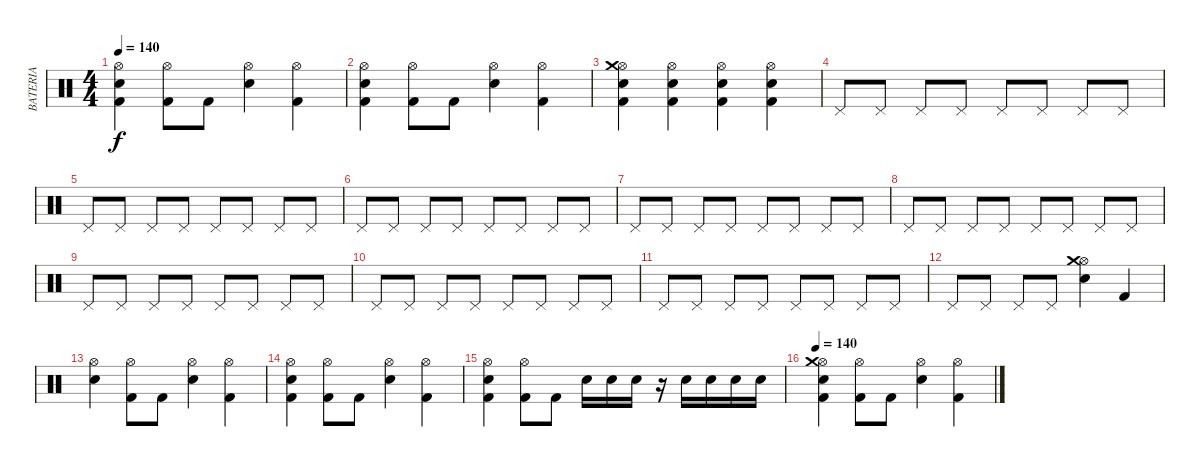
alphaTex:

\track ("BATERIA" "BATERIA") {instrument percussion}
\staff {score}
\articulation defaults
\ts (4 4)
\tempo 140
\clef neutral
\ks c
("Kick (hit) 2" "Electric Snare (hit)" "Hi-Hat (open)").4{dy f} ("Kick (hit) 2" "Hi-Hat (open)").8 "Kick (hit) 2".8 ("Electric Snare (hit)" "Hi-Hat (open)").4 ("Kick (hit) 2" "Hi-Hat (open)").4 |
("Kick (hit) 2" "Electric Snare (hit)" "Hi-Hat (open)").4 ("Kick (hit) 2" "Hi-Hat (open)").8 "Kick (hit) 2".8 ("Electric Snare (hit)" "Hi-Hat (open)").4 ("Kick (hit) 2" "Hi-Hat (open)").4 |
("Kick (hit) 2" "Electric Snare (hit)" "Hi-Hat (open)" "Crash medium (hit)").4 ("Kick (hit) 2" "Electric Snare (hit)" "Hi-Hat (open)").4 ("Kick (hit) 2" "Electric Snare (hit)" "Hi-Hat (open)").4 ("Kick (hit) 2" "Electric Snare (hit)" "Hi-Hat (open)").4 |
"Pedal Hi-Hat (hit)".8 "Pedal Hi-Hat (hit)".8 "Pedal Hi-Hat (hit)".8 "Pedal Hi-Hat (hit)".8 "Pedal Hi-Hat (hit)".8 "Pedal Hi-Hat (hit)".8 "Pedal Hi-Hat (hit)".8 "Pedal Hi-Hat (hit)".8 |
"Pedal Hi-Hat (hit)".8 "Pedal Hi-Hat (hit)".8 "Pedal Hi-Hat (hit)".8 "Pedal Hi-Hat (hit)".8 "Pedal Hi-Hat (hit)".8 "Pedal Hi-Hat (hit)".8 "Pedal Hi-Hat (hit)".8 "Pedal Hi-Hat (hit)".8 |
"Pedal Hi-Hat (hit)".8 "Pedal Hi-Hat (hit)".8 "Pedal Hi-Hat (hit)".8 "Pedal Hi-Hat (hit)".8 "Pedal Hi-Hat (hit)".8 "Pedal Hi-Hat (hit)".8 "Pedal Hi-Hat (hit)".8 "Pedal Hi-Hat (hit)".8 |
"Pedal Hi-Hat (hit)".8 "Pedal Hi-Hat (hit)".8 "Pedal Hi-Hat (hit)".8 "Pedal Hi-Hat (hit)".8 "Pedal Hi-Hat (hit)".8 "Pedal Hi-Hat (hit)".8 "Pedal Hi-Hat (hit)".8 "Pedal Hi-Hat (hit)".8 |
"Pedal Hi-Hat (hit)".8 "Pedal Hi-Hat (hit)".8 "Pedal Hi-Hat (hit)".8 "Pedal Hi-Hat (hit)".8 "Pedal Hi-Hat (hit)".8 "Pedal Hi-Hat (hit)".8 "Pedal Hi-Hat (hit)".8 "Pedal Hi-Hat (hit)".8 |
"Pedal Hi-Hat (hit)".8 "Pedal Hi-Hat (hit)".8 "Pedal Hi-Hat (hit)".8 "Pedal Hi-Hat (hit)".8 "Pedal Hi-Hat (hit)".8 "Pedal Hi-Hat (hit)".8 "Pedal Hi-Hat (hit)".8 "Pedal Hi-Hat (hit)".8 |
"Pedal Hi-Hat (hit)".8 "Pedal Hi-Hat (hit)".8 "Pedal Hi-Hat (hit)".8 "Pedal Hi-Hat (hit)".8 "Pedal Hi-Hat (hit)".8 "Pedal Hi-Hat (hit)".8 "Pedal Hi-Hat (hit)".8 "Pedal Hi-Hat (hit)".8 |
"Pedal Hi-Hat (hit)".8 "Pedal Hi-Hat (hit)".8 "Pedal Hi-Hat (hit)".8 "Pedal Hi-Hat (hit)".8 "Pedal Hi-Hat (hit)".8 "Pedal Hi-Hat (hit)".8 "Pedal Hi-Hat (hit)".8 "Pedal Hi-Hat (hit)".8 |
"Pedal Hi-Hat (hit)".8 "Pedal Hi-Hat (hit)".8 "Pedal Hi-Hat (hit)".8 "Pedal Hi-Hat (hit)".8 ("Electric Snare (hit)" "Hi-Hat (open)" "Crash medium (hit)").4 "Kick (hit) 2".4 |
("Electric Snare (hit)" "Hi-Hat (open)").4 ("Kick (hit) 2" "Hi-Hat (open)").8 "Kick (hit) 2".8 ("Electric Snare (hit)" "Hi-Hat (open)").4 ("Kick (hit) 2" "Hi-Hat (open)").4 |
("Kick (hit) 2" "Electric Snare (hit)" "Hi-Hat (open)").4 ("Kick (hit) 2" "Hi-Hat (open)").8 "Kick (hit) 2".8 ("Electric Snare (hit)" "Hi-Hat (open)").4 ("Kick (hit) 2" "Hi-Hat (open)").4 |
("Kick (hit) 2" "Electric Snare (hit)" "Hi-Hat (open)").4 ("Kick (hit) 2" "Hi-Hat (open)").8 "Kick (hit) 2".8 "Electric Snare (hit)".16 "Electric Snare (hit)".16 "Electric Snare (hit)".16 r.16 "Electric Snare (hit)".16 "Electric Snare (hit)".16 "Electric Snare (hit)".16 "Electric Snare (hit)".16 |
\tempo 140
("Kick (hit) 2" "Electric Snare (hit)" "Hi-Hat (open)" "Crash medium (hit)").4 ("Kick (hit) 2" "Hi-Hat (open)").8 "Kick (hit) 2".8 ("Electric Snare (hit)" "Hi-Hat (open)").4 ("Kick (hit) 2" "Hi-Hat (open)").4
